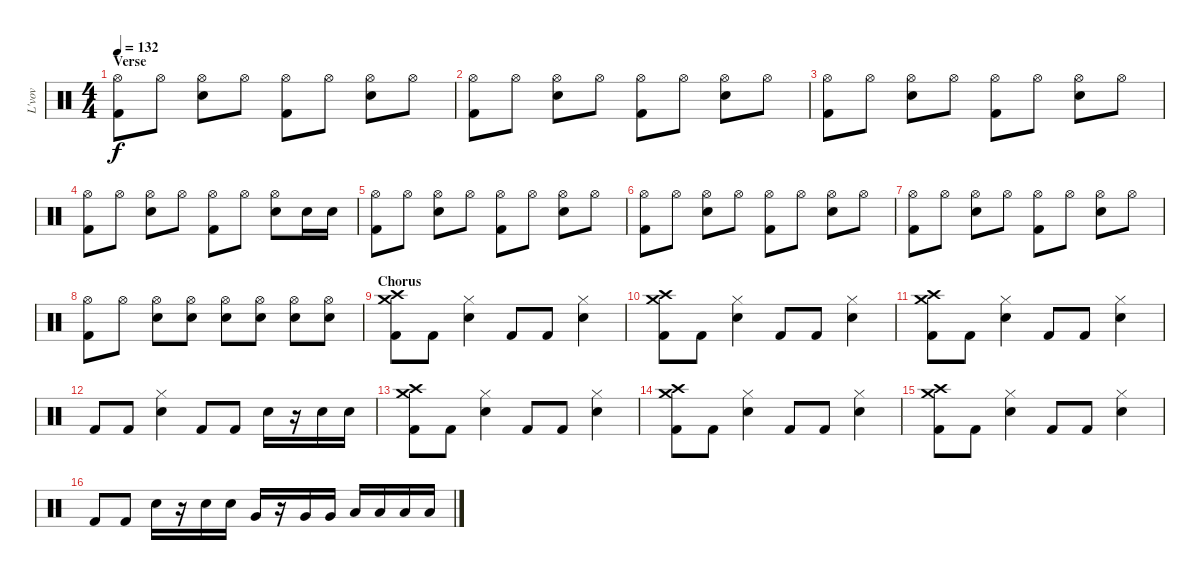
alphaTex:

\track ("L'vov" "L'vov") {instrument percussion}
\staff {score}
\articulation defaults
\ts (4 4)
\section ("" "Verse")
\tempo 132
\clef neutral
\ks c
("Hi-Hat (open)" "Kick (hit) 2").8{dy f} "Hi-Hat (open)".8 ("Hi-Hat (open)" "Snare (hit) 2").8 "Hi-Hat (open)".8 ("Hi-Hat (open)" "Kick (hit) 2").8 "Hi-Hat (open)".8 ("Hi-Hat (open)" "Snare (hit) 2").8 "Hi-Hat (open)".8 |
("Hi-Hat (open)" "Kick (hit) 2").8 "Hi-Hat (open)".8 ("Hi-Hat (open)" "Snare (hit) 2").8 "Hi-Hat (open)".8 ("Hi-Hat (open)" "Kick (hit) 2").8 "Hi-Hat (open)".8 ("Hi-Hat (open)" "Snare (hit) 2").8 "Hi-Hat (open)".8 |
("Hi-Hat (open)" "Kick (hit) 2").8 "Hi-Hat (open)".8 ("Hi-Hat (open)" "Snare (hit) 2").8 "Hi-Hat (open)".8 ("Hi-Hat (open)" "Kick (hit) 2").8 "Hi-Hat (open)".8 ("Hi-Hat (open)" "Snare (hit) 2").8 "Hi-Hat (open)".8 |
("Hi-Hat (open)" "Kick (hit) 2").8 "Hi-Hat (open)".8 ("Hi-Hat (open)" "Snare (hit) 2").8 "Hi-Hat (open)".8 ("Hi-Hat (open)" "Kick (hit) 2").8 "Hi-Hat (open)".8 ("Hi-Hat (open)" "Snare (hit) 2").8 "Snare (hit) 2".16 "Snare (hit) 2".16 |
("Hi-Hat (open)" "Kick (hit) 2").8 "Hi-Hat (open)".8 ("Hi-Hat (open)" "Snare (hit) 2").8 "Hi-Hat (open)".8 ("Hi-Hat (open)" "Kick (hit) 2").8 "Hi-Hat (open)".8 ("Hi-Hat (open)" "Snare (hit) 2").8 "Hi-Hat (open)".8 |
("Hi-Hat (open)" "Kick (hit) 2").8 "Hi-Hat (open)".8 ("Hi-Hat (open)" "Snare (hit) 2").8 "Hi-Hat (open)".8 ("Hi-Hat (open)" "Kick (hit) 2").8 "Hi-Hat (open)".8 ("Hi-Hat (open)" "Snare (hit) 2").8 "Hi-Hat (open)".8 |
("Hi-Hat (open)" "Kick (hit) 2").8 "Hi-Hat (open)".8 ("Hi-Hat (open)" "Snare (hit) 2").8 "Hi-Hat (open)".8 ("Hi-Hat (open)" "Kick (hit) 2").8 "Hi-Hat (open)".8 ("Hi-Hat (open)" "Snare (hit) 2").8 "Hi-Hat (open)".8 |
("Hi-Hat (open)" "Kick (hit) 2").8 "Hi-Hat (open)".8 ("Hi-Hat (open)" "Snare (hit) 2").8 ("Hi-Hat (open)" "Snare (hit) 2").8 ("Hi-Hat (open)" "Snare (hit) 2").8 ("Hi-Hat (open)" "Snare (hit) 2").8 ("Hi-Hat (open)" "Snare (hit) 2").8 ("Hi-Hat (open)" "Snare (hit) 2").8 |
\section ("" "Chorus")
("Kick (hit) 2" "Crash high (hit)" "Crash medium (hit)").8 "Kick (hit) 2".8 ("Snare (hit) 2" "Hi-Hat (closed)").4 "Kick (hit) 2".8 "Kick (hit) 2".8 ("Snare (hit) 2" "Hi-Hat (closed)").4 |
("Kick (hit) 2" "Crash high (hit)" "Crash medium (hit)").8 "Kick (hit) 2".8 ("Snare (hit) 2" "Hi-Hat (closed)").4 "Kick (hit) 2".8 "Kick (hit) 2".8 ("Snare (hit) 2" "Hi-Hat (closed)").4 |
("Kick (hit) 2" "Crash high (hit)" "Crash medium (hit)").8 "Kick (hit) 2".8 ("Snare (hit) 2" "Hi-Hat (closed)").4 "Kick (hit) 2".8 "Kick (hit) 2".8 ("Snare (hit) 2" "Hi-Hat (closed)").4 |
"Kick (hit) 2".8 "Kick (hit) 2".8 ("Snare (hit) 2" "Hi-Hat (closed)").4 "Kick (hit) 2".8 "Kick (hit) 2".8 "Snare (hit) 2".16 r.16 "Snare (hit) 2".16 "Snare (hit) 2".16 |
("Kick (hit) 2" "Crash high (hit)" "Crash medium (hit)").8 "Kick (hit) 2".8 ("Snare (hit) 2" "Hi-Hat (closed)").4 "Kick (hit) 2".8 "Kick (hit) 2".8 ("Snare (hit) 2" "Hi-Hat (closed)").4 |
("Kick (hit) 2" "Crash high (hit)" "Crash medium (hit)").8 "Kick (hit) 2".8 ("Snare (hit) 2" "Hi-Hat (closed)").4 "Kick (hit) 2".8 "Kick (hit) 2".8 ("Snare (hit) 2" "Hi-Hat (closed)").4 |
("Kick (hit) 2" "Crash high (hit)" "Crash medium (hit)").8 "Kick (hit) 2".8 ("Snare (hit) 2" "Hi-Hat (closed)").4 "Kick (hit) 2".8 "Kick (hit) 2".8 ("Snare (hit) 2" "Hi-Hat (closed)").4 |
"Kick (hit) 2".8 "Kick (hit) 2".8 "Snare (hit) 2".16 r.16 "Snare (hit) 2".16 "Snare (hit) 2".16 "Very Low Tom (hit)".16 r.16 "Very Low Tom (hit)".16 "Very Low Tom (hit)".16 "Low Tom (hit)".16 "Low Tom (hit)".16 "Low Floor Tom (hit)".16 "Low Floor Tom (hit)".16
